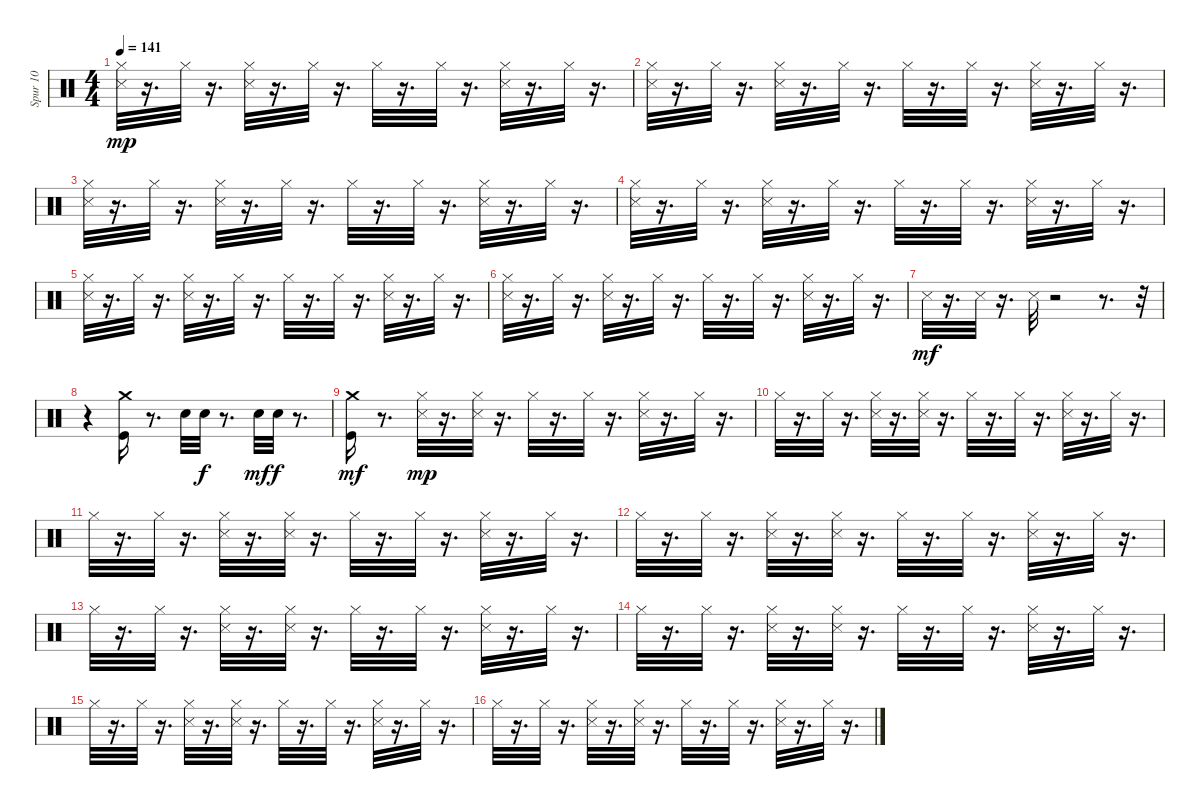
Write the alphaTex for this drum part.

\track ("Spur 10" "Spur 10") {instrument percussion}
\staff {score}
\articulation defaults
\ts (4 4)
\tempo 141
\clef neutral
\ks c
("Snare (side stick) 3" "Hi-Hat (closed)").32{dy mp} r.16{d} "Hi-Hat (closed)".32 r.16{d} ("Snare (side stick) 3" "Hi-Hat (closed)").32 r.16{d} "Hi-Hat (closed)".32 r.16{d} "Hi-Hat (closed)".32 r.16{d} "Hi-Hat (closed)".32 r.16{d} ("Snare (side stick) 3" "Hi-Hat (closed)").32 r.16{d} "Hi-Hat (closed)".32 r.16{d} |
("Snare (side stick) 3" "Hi-Hat (closed)").32 r.16{d} "Hi-Hat (closed)".32 r.16{d} ("Snare (side stick) 3" "Hi-Hat (closed)").32 r.16{d} "Hi-Hat (closed)".32 r.16{d} "Hi-Hat (closed)".32 r.16{d} "Hi-Hat (closed)".32 r.16{d} ("Snare (side stick) 3" "Hi-Hat (closed)").32 r.16{d} "Hi-Hat (closed)".32 r.16{d} |
("Snare (side stick) 3" "Hi-Hat (closed)").32 r.16{d} "Hi-Hat (closed)".32 r.16{d} ("Snare (side stick) 3" "Hi-Hat (closed)").32 r.16{d} "Hi-Hat (closed)".32 r.16{d} "Hi-Hat (closed)".32 r.16{d} "Hi-Hat (closed)".32 r.16{d} ("Snare (side stick) 3" "Hi-Hat (closed)").32 r.16{d} "Hi-Hat (closed)".32 r.16{d} |
("Snare (side stick) 3" "Hi-Hat (closed)").32 r.16{d} "Hi-Hat (closed)".32 r.16{d} ("Snare (side stick) 3" "Hi-Hat (closed)").32 r.16{d} "Hi-Hat (closed)".32 r.16{d} "Hi-Hat (closed)".32 r.16{d} "Hi-Hat (closed)".32 r.16{d} ("Snare (side stick) 3" "Hi-Hat (closed)").32 r.16{d} "Hi-Hat (closed)".32 r.16{d} |
("Snare (side stick) 3" "Hi-Hat (closed)").32 r.16{d} "Hi-Hat (closed)".32 r.16{d} ("Snare (side stick) 3" "Hi-Hat (closed)").32 r.16{d} "Hi-Hat (closed)".32 r.16{d} "Hi-Hat (closed)".32 r.16{d} "Hi-Hat (closed)".32 r.16{d} ("Snare (side stick) 3" "Hi-Hat (closed)").32 r.16{d} "Hi-Hat (closed)".32 r.16{d} |
("Snare (side stick) 3" "Hi-Hat (closed)").32 r.16{d} "Hi-Hat (closed)".32 r.16{d} ("Snare (side stick) 3" "Hi-Hat (closed)").32 r.16{d} "Hi-Hat (closed)".32 r.16{d} "Hi-Hat (closed)".32 r.16{d} "Hi-Hat (closed)".32 r.16{d} ("Snare (side stick) 3" "Hi-Hat (closed)").32 r.16{d} "Hi-Hat (closed)".32 r.16{d} |
"Snare (side stick) 3".32{dy mf} r.16{d} "Snare (side stick) 3".32 r.16{d} "Snare (side stick) 3".32 r.2 r.8{d} r.32 |
r.4 ("Crash medium (hit)" "Kick (hit)").16 r.8{d} "Electric Snare (hit)".32 "Electric Snare (hit)".32{dy f} r.8{d} "Snare (hit) 2".32{dy mf} "Snare (hit) 2".32{dy f} r.8{d} |
("Crash medium (hit)" "Kick (hit)").16{dy mf} r.8{d} ("Snare (side stick) 3" "Hi-Hat (closed)").32{dy mp} r.16{d} ("Snare (side stick) 3" "Hi-Hat (closed)").32 r.16{d} "Hi-Hat (closed)".32 r.16{d} "Hi-Hat (closed)".32 r.16{d} ("Snare (side stick) 3" "Hi-Hat (closed)").32 r.16{d} "Hi-Hat (closed)".32 r.16{d} |
"Hi-Hat (closed)".32 r.16{d} "Hi-Hat (closed)".32 r.16{d} ("Snare (side stick) 3" "Hi-Hat (closed)").32 r.16{d} ("Snare (side stick) 3" "Hi-Hat (closed)").32 r.16{d} "Hi-Hat (closed)".32 r.16{d} "Hi-Hat (closed)".32 r.16{d} ("Snare (side stick) 3" "Hi-Hat (closed)").32 r.16{d} "Hi-Hat (closed)".32 r.16{d} |
"Hi-Hat (closed)".32 r.16{d} "Hi-Hat (closed)".32 r.16{d} ("Snare (side stick) 3" "Hi-Hat (closed)").32 r.16{d} ("Snare (side stick) 3" "Hi-Hat (closed)").32 r.16{d} "Hi-Hat (closed)".32 r.16{d} "Hi-Hat (closed)".32 r.16{d} ("Snare (side stick) 3" "Hi-Hat (closed)").32 r.16{d} "Hi-Hat (closed)".32 r.16{d} |
"Hi-Hat (closed)".32 r.16{d} "Hi-Hat (closed)".32 r.16{d} ("Snare (side stick) 3" "Hi-Hat (closed)").32 r.16{d} ("Snare (side stick) 3" "Hi-Hat (closed)").32 r.16{d} "Hi-Hat (closed)".32 r.16{d} "Hi-Hat (closed)".32 r.16{d} ("Snare (side stick) 3" "Hi-Hat (closed)").32 r.16{d} "Hi-Hat (closed)".32 r.16{d} |
"Hi-Hat (closed)".32 r.16{d} "Hi-Hat (closed)".32 r.16{d} ("Snare (side stick) 3" "Hi-Hat (closed)").32 r.16{d} ("Snare (side stick) 3" "Hi-Hat (closed)").32 r.16{d} "Hi-Hat (closed)".32 r.16{d} "Hi-Hat (closed)".32 r.16{d} ("Snare (side stick) 3" "Hi-Hat (closed)").32 r.16{d} "Hi-Hat (closed)".32 r.16{d} |
"Hi-Hat (closed)".32 r.16{d} "Hi-Hat (closed)".32 r.16{d} ("Snare (side stick) 3" "Hi-Hat (closed)").32 r.16{d} ("Snare (side stick) 3" "Hi-Hat (closed)").32 r.16{d} "Hi-Hat (closed)".32 r.16{d} "Hi-Hat (closed)".32 r.16{d} ("Snare (side stick) 3" "Hi-Hat (closed)").32 r.16{d} "Hi-Hat (closed)".32 r.16{d} |
"Hi-Hat (closed)".32 r.16{d} "Hi-Hat (closed)".32 r.16{d} ("Snare (side stick) 3" "Hi-Hat (closed)").32 r.16{d} ("Snare (side stick) 3" "Hi-Hat (closed)").32 r.16{d} "Hi-Hat (closed)".32 r.16{d} "Hi-Hat (closed)".32 r.16{d} ("Snare (side stick) 3" "Hi-Hat (closed)").32 r.16{d} "Hi-Hat (closed)".32 r.16{d} |
"Hi-Hat (closed)".32 r.16{d} "Hi-Hat (closed)".32 r.16{d} ("Snare (side stick) 3" "Hi-Hat (closed)").32 r.16{d} ("Snare (side stick) 3" "Hi-Hat (closed)").32 r.16{d} "Hi-Hat (closed)".32 r.16{d} "Hi-Hat (closed)".32 r.16{d} ("Snare (side stick) 3" "Hi-Hat (closed)").32 r.16{d} "Hi-Hat (closed)".32 r.16{d}
